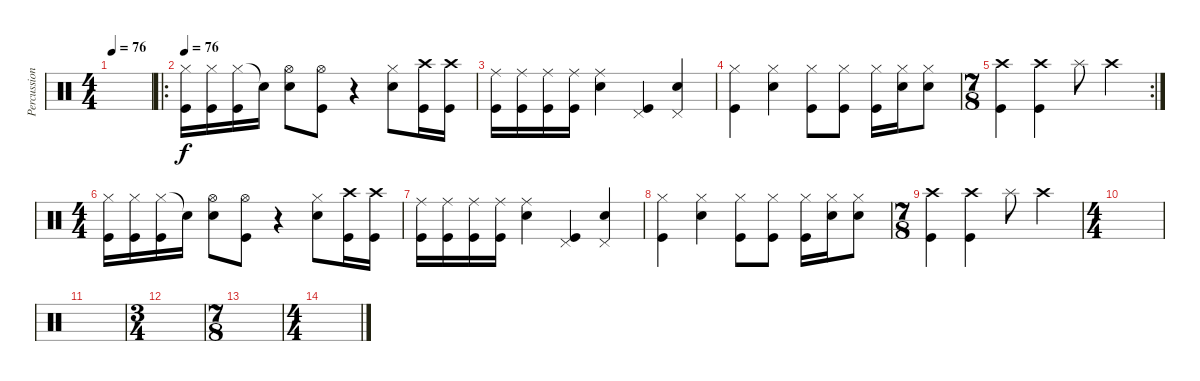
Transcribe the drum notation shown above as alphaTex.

\track ("Percussion" "Percussion") {instrument percussion}
\staff {score}
\articulation defaults
\ts (4 4)
\tempo 76
\clef neutral
\ks c
|
\ro
\tempo 76
("Hi-Hat (closed)" "Kick (hit)").16 ("Hi-Hat (closed)" "Kick (hit)").16 ("Hi-Hat (closed)" "Kick (hit)").16 "Snare (hit)"{t}.16 ("Hi-Hat (open)" "Snare (hit) 2").8 ("Hi-Hat (open)" "Kick (hit)").8 r.4 ("Hi-Hat (closed)" "Snare (hit) 2").8 ("Crash high (hit)" "Kick (hit)").16 ("Crash high (hit)" "Kick (hit)").16 |
("Ride (middle)" "Kick (hit)").16 ("Ride (middle)" "Kick (hit)").16 ("Ride (middle)" "Kick (hit)").16 ("Ride (middle)" "Kick (hit)").16 ("Ride (middle)" "Snare (hit) 2").4 ("Pedal Hi-Hat (hit)" "Kick (hit)").4 ("Pedal Hi-Hat (hit)" "Snare (hit) 2").4 |
("Hi-Hat (closed)" "Kick (hit)").4 ("Hi-Hat (closed)" "Snare (hit) 2").4 ("Hi-Hat (closed)" "Kick (hit)").8 ("Hi-Hat (closed)" "Kick (hit)").8 ("Hi-Hat (closed)" "Kick (hit)").16 ("Hi-Hat (closed)" "Snare (hit) 2").16 ("Hi-Hat (closed)" "Snare (hit) 2").8 |
\rc 2
\ts (7 8)
("Crash high (hit)" "Kick (hit)").4 ("Crash high (hit)" "Kick (hit)").4 "Splash (hit)".8 "Crash high (hit)".4 |
\ts (4 4)
("Hi-Hat (closed)" "Kick (hit)").16 ("Hi-Hat (closed)" "Kick (hit)").16 ("Hi-Hat (closed)" "Kick (hit)").16 "Snare (hit)"{t}.16 ("Hi-Hat (open)" "Snare (hit) 2").8 ("Hi-Hat (open)" "Kick (hit)").8 r.4 ("Hi-Hat (closed)" "Snare (hit) 2").8 ("Crash high (hit)" "Kick (hit)").16 ("Crash high (hit)" "Kick (hit)").16 |
("Ride (middle)" "Kick (hit)").16 ("Ride (middle)" "Kick (hit)").16 ("Ride (middle)" "Kick (hit)").16 ("Ride (middle)" "Kick (hit)").16 ("Ride (middle)" "Snare (hit) 2").4 ("Pedal Hi-Hat (hit)" "Kick (hit)").4 ("Pedal Hi-Hat (hit)" "Snare (hit) 2").4 |
("Hi-Hat (closed)" "Kick (hit)").4 ("Hi-Hat (closed)" "Snare (hit) 2").4 ("Hi-Hat (closed)" "Kick (hit)").8 ("Hi-Hat (closed)" "Kick (hit)").8 ("Hi-Hat (closed)" "Kick (hit)").16 ("Hi-Hat (closed)" "Snare (hit) 2").16 ("Hi-Hat (closed)" "Snare (hit) 2").8 |
\ts (7 8)
("Crash high (hit)" "Kick (hit)").4 ("Crash high (hit)" "Kick (hit)").4 "Splash (hit)".8 "Crash high (hit)".4 |
\ts (4 4)
|
|
\ts (3 4)
|
\ts (7 8)
|
\ts (4 4)
